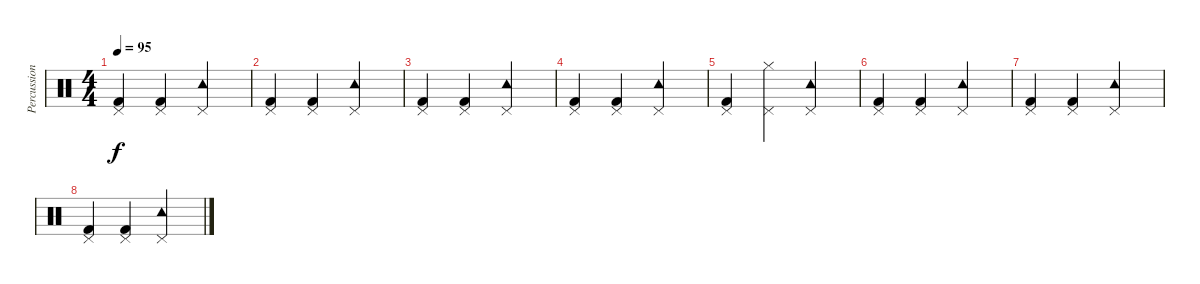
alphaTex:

\track ("Percussions" "Percussion") {instrument percussion}
\staff {score}
\articulation defaults
\ts (4 4)
\tempo 95
\clef neutral
\ks c
("Kick (hit) 2" "Pedal Hi-Hat (hit)").4{dy f} ("Kick (hit) 2" "Pedal Hi-Hat (hit)").4 ("Tambourine (hit)" "Pedal Hi-Hat (hit)").2 |
("Kick (hit) 2" "Pedal Hi-Hat (hit)").4 ("Kick (hit) 2" "Pedal Hi-Hat (hit)").4 ("Tambourine (hit)" "Pedal Hi-Hat (hit)").2 |
("Kick (hit) 2" "Pedal Hi-Hat (hit)").4 ("Kick (hit) 2" "Pedal Hi-Hat (hit)").4 ("Tambourine (hit)" "Pedal Hi-Hat (hit)").2 |
("Kick (hit) 2" "Pedal Hi-Hat (hit)").4 ("Kick (hit) 2" "Pedal Hi-Hat (hit)").4 ("Tambourine (hit)" "Pedal Hi-Hat (hit)").2 |
("Kick (hit) 2" "Pedal Hi-Hat (hit)").4 ("Hi-Hat (closed)" "Pedal Hi-Hat (hit)").4 ("Tambourine (hit)" "Pedal Hi-Hat (hit)").2 |
("Kick (hit) 2" "Pedal Hi-Hat (hit)").4 ("Kick (hit) 2" "Pedal Hi-Hat (hit)").4 ("Tambourine (hit)" "Pedal Hi-Hat (hit)").2 |
("Kick (hit) 2" "Pedal Hi-Hat (hit)").4 ("Kick (hit) 2" "Pedal Hi-Hat (hit)").4 ("Tambourine (hit)" "Pedal Hi-Hat (hit)").2 |
("Kick (hit) 2" "Pedal Hi-Hat (hit)").4 ("Kick (hit) 2" "Pedal Hi-Hat (hit)").4 ("Tambourine (hit)" "Pedal Hi-Hat (hit)").2
